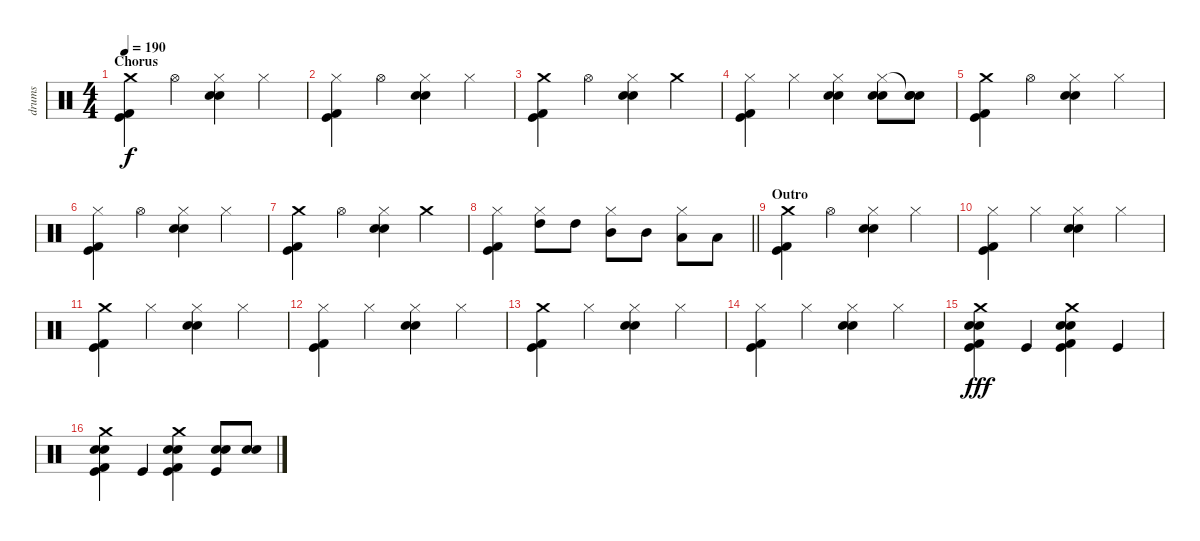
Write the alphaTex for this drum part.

\track ("drums" "drums") {instrument percussion}
\staff {score}
\articulation defaults
\ts (4 4)
\section ("" "Chorus")
\tempo 190
\clef neutral
\ks c
("Crash medium (hit)" "Kick (hit) 2" "Kick (hit)").4{dy f} "Hi-Hat (open)".4 ("Hi-Hat (closed)" "Snare (hit) 2" "Electric Snare (hit)").4 "Hi-Hat (closed)".4 |
("Hi-Hat (closed)" "Kick (hit) 2" "Kick (hit)").4 "Hi-Hat (open)".4 ("Hi-Hat (closed)" "Snare (hit) 2" "Electric Snare (hit)").4 "Hi-Hat (closed)".4 |
("Crash medium (hit)" "Kick (hit) 2" "Kick (hit)").4 "Hi-Hat (open)".4 ("Hi-Hat (closed)" "Snare (hit) 2" "Electric Snare (hit)").4 "Crash medium (hit)".4 |
("Hi-Hat (closed)" "Kick (hit) 2" "Kick (hit)").4 "Hi-Hat (closed)".4 ("Hi-Hat (closed)" "Snare (hit) 2" "Electric Snare (hit)").4 ("Hi-Hat (closed)" "Snare (hit) 2" "Electric Snare (hit)").8 ("Snare (hit)"{t} "Snare (hit) 2" "Electric Snare (hit)").8 |
("Crash medium (hit)" "Kick (hit) 2" "Kick (hit)").4 "Hi-Hat (open)".4 ("Hi-Hat (closed)" "Snare (hit) 2" "Electric Snare (hit)").4 "Hi-Hat (closed)".4 |
("Hi-Hat (closed)" "Kick (hit) 2" "Kick (hit)").4 "Hi-Hat (open)".4 ("Hi-Hat (closed)" "Snare (hit) 2" "Electric Snare (hit)").4 "Hi-Hat (closed)".4 |
("Crash medium (hit)" "Kick (hit) 2" "Kick (hit)").4 "Hi-Hat (open)".4 ("Hi-Hat (closed)" "Snare (hit) 2" "Electric Snare (hit)").4 "Crash medium (hit)".4 |
\barLineRight lightlight
("Hi-Hat (closed)" "Kick (hit) 2" "Kick (hit)").4 ("Hi-Hat (closed)" "High Tom (hit)").8 "High Tom (hit)".8 ("Hi-Hat (closed)" "Mid Tom (hit)").8 "Mid Tom (hit)".8 ("Hi-Hat (closed)" "Low Tom (hit)").8 "Low Tom (hit)".8 |
\section ("" "Outro")
("Crash medium (hit)" "Kick (hit) 2" "Kick (hit)").4 "Hi-Hat (open)".4 ("Hi-Hat (closed)" "Electric Snare (hit)" "Snare (hit) 2").4 "Hi-Hat (closed)".4 |
("Hi-Hat (closed)" "Kick (hit) 2" "Kick (hit)").4 "Hi-Hat (closed)".4 ("Hi-Hat (closed)" "Electric Snare (hit)" "Snare (hit) 2").4 "Hi-Hat (closed)".4 |
("Crash medium (hit)" "Kick (hit) 2" "Kick (hit)").4 "Hi-Hat (closed)".4 ("Hi-Hat (closed)" "Electric Snare (hit)" "Snare (hit) 2").4 "Hi-Hat (closed)".4 |
("Hi-Hat (closed)" "Kick (hit) 2" "Kick (hit)").4 "Hi-Hat (closed)".4 ("Hi-Hat (closed)" "Electric Snare (hit)" "Snare (hit) 2").4 "Hi-Hat (closed)".4 |
("Crash medium (hit)" "Kick (hit) 2" "Kick (hit)").4 "Hi-Hat (closed)".4 ("Hi-Hat (closed)" "Electric Snare (hit)" "Snare (hit) 2").4 "Hi-Hat (closed)".4 |
("Hi-Hat (closed)" "Kick (hit) 2" "Kick (hit)").4 "Hi-Hat (closed)".4 ("Hi-Hat (closed)" "Electric Snare (hit)" "Snare (hit) 2").4 "Hi-Hat (closed)".4 |
("Crash medium (hit)" "Snare (hit) 2" "Electric Snare (hit)" "Kick (hit) 2" "Kick (hit)").4{dy fff} "Kick (hit)".4 ("Crash medium (hit)" "Snare (hit) 2" "Electric Snare (hit)" "Kick (hit) 2" "Kick (hit)").4 "Kick (hit)".4 |
("Crash medium (hit)" "Snare (hit) 2" "Electric Snare (hit)" "Kick (hit) 2" "Kick (hit)").4 "Kick (hit)".4 ("Crash medium (hit)" "Snare (hit) 2" "Electric Snare (hit)" "Kick (hit) 2" "Kick (hit)").4 ("Snare (hit) 2" "Electric Snare (hit)" "Kick (hit)").8 ("Snare (hit) 2" "Electric Snare (hit)").8
